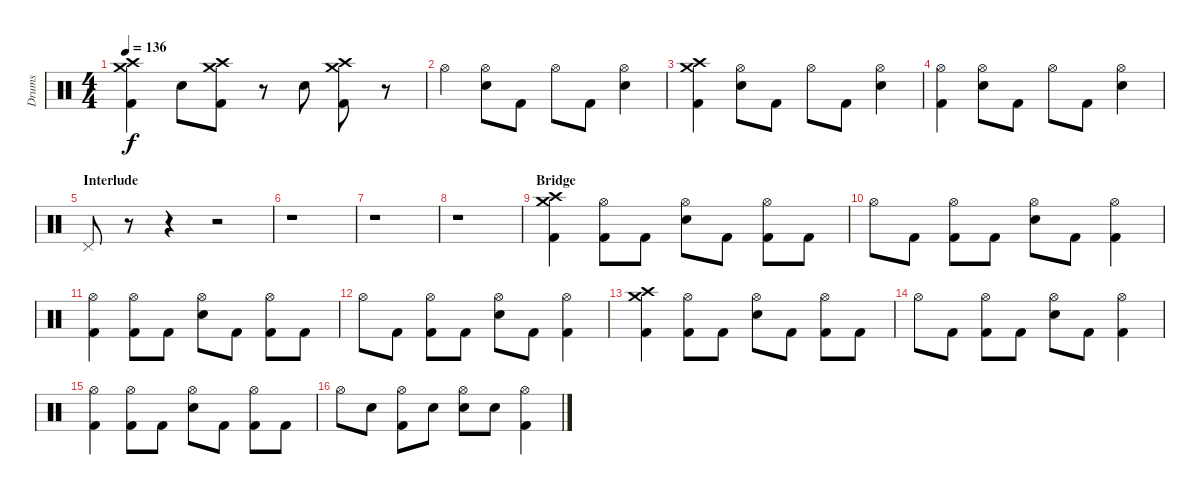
\track ("Drums" "Drums") {instrument percussion}
\staff {score}
\articulation defaults
\ts (4 4)
\tempo 136
\clef neutral
\ks c
("Crash high (hit)" "Crash medium (hit)" "Kick (hit) 2").4{dy f} "Electric Snare (hit)".8 ("Crash high (hit)" "Crash medium (hit)" "Kick (hit) 2").8 r.8 "Electric Snare (hit)".8 ("Crash high (hit)" "Crash medium (hit)" "Kick (hit) 2").8 r.8 |
"Hi-Hat (open)".4 ("Hi-Hat (open)" "Electric Snare (hit)").8 "Kick (hit) 2".8 "Hi-Hat (open)".8 "Kick (hit) 2".8 ("Hi-Hat (open)" "Electric Snare (hit)").4 |
("Crash high (hit)" "Crash medium (hit)" "Kick (hit) 2").4 ("Hi-Hat (open)" "Electric Snare (hit)").8 "Kick (hit) 2".8 "Hi-Hat (open)".8 "Kick (hit) 2".8 ("Hi-Hat (open)" "Electric Snare (hit)").4 |
("Hi-Hat (open)" "Kick (hit) 2").4 ("Hi-Hat (open)" "Electric Snare (hit)").8 "Kick (hit) 2".8 "Hi-Hat (open)".8 "Kick (hit) 2".8 ("Hi-Hat (open)" "Electric Snare (hit)").4 |
\section ("" "Interlude")
"Pedal Hi-Hat (hit)".8 r.8 r.4 r.2 |
r.1 |
r.1 |
r.1 |
\section ("" "Bridge")
("Crash high (hit)" "Crash medium (hit)" "Kick (hit) 2").4 ("Hi-Hat (open)" "Kick (hit) 2").8 "Kick (hit) 2".8 ("Hi-Hat (open)" "Electric Snare (hit)").8 "Kick (hit) 2".8 ("Hi-Hat (open)" "Kick (hit) 2").8 "Kick (hit) 2".8 |
"Hi-Hat (open)".8 "Kick (hit) 2".8 ("Hi-Hat (open)" "Kick (hit) 2").8 "Kick (hit) 2".8 ("Hi-Hat (open)" "Electric Snare (hit)").8 "Kick (hit) 2".8 ("Hi-Hat (open)" "Kick (hit) 2").4 |
("Hi-Hat (open)" "Kick (hit) 2").4 ("Hi-Hat (open)" "Kick (hit) 2").8 "Kick (hit) 2".8 ("Hi-Hat (open)" "Electric Snare (hit)").8 "Kick (hit) 2".8 ("Hi-Hat (open)" "Kick (hit) 2").8 "Kick (hit) 2".8 |
"Hi-Hat (open)".8 "Kick (hit) 2".8 ("Hi-Hat (open)" "Kick (hit) 2").8 "Kick (hit) 2".8 ("Hi-Hat (open)" "Electric Snare (hit)").8 "Kick (hit) 2".8 ("Hi-Hat (open)" "Kick (hit) 2").4 |
("Crash high (hit)" "Crash medium (hit)" "Kick (hit) 2").4 ("Hi-Hat (open)" "Kick (hit) 2").8 "Kick (hit) 2".8 ("Hi-Hat (open)" "Electric Snare (hit)").8 "Kick (hit) 2".8 ("Hi-Hat (open)" "Kick (hit) 2").8 "Kick (hit) 2".8 |
"Hi-Hat (open)".8 "Kick (hit) 2".8 ("Hi-Hat (open)" "Kick (hit) 2").8 "Kick (hit) 2".8 ("Hi-Hat (open)" "Electric Snare (hit)").8 "Kick (hit) 2".8 ("Hi-Hat (open)" "Kick (hit) 2").4 |
("Hi-Hat (open)" "Kick (hit) 2").4 ("Hi-Hat (open)" "Kick (hit) 2").8 "Kick (hit) 2".8 ("Hi-Hat (open)" "Electric Snare (hit)").8 "Kick (hit) 2".8 ("Hi-Hat (open)" "Kick (hit) 2").8 "Kick (hit) 2".8 |
"Hi-Hat (open)".8 "Electric Snare (hit)".8 ("Hi-Hat (open)" "Kick (hit) 2").8 "Electric Snare (hit)".8 ("Hi-Hat (open)" "Electric Snare (hit)").8 "Electric Snare (hit)".8 ("Hi-Hat (open)" "Kick (hit) 2").4
